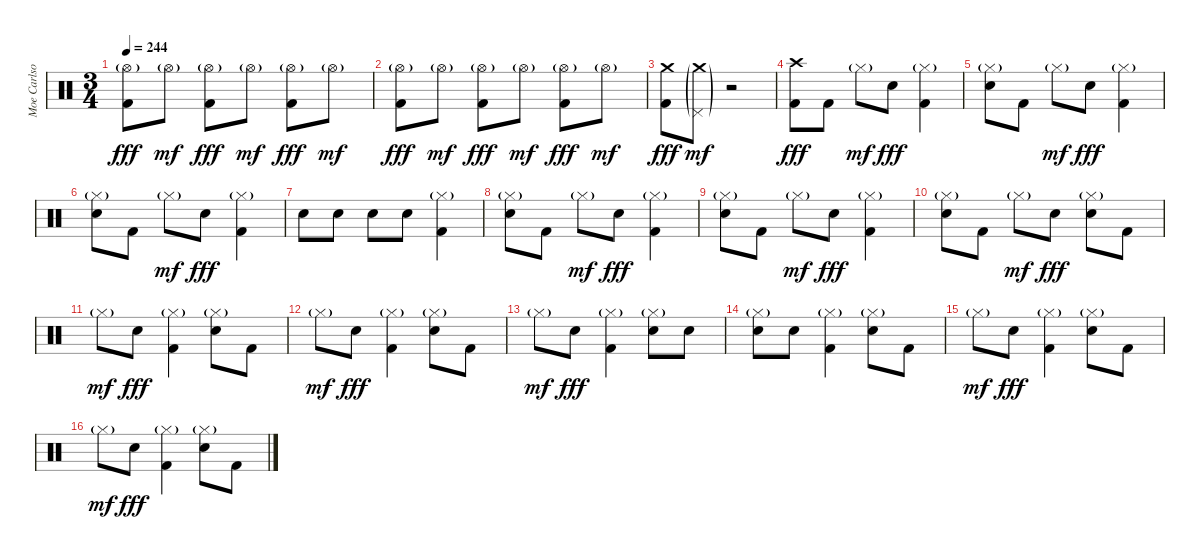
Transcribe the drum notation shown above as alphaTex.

\track ("Moe Carlson" "Moe Carlso") {instrument percussion}
\staff {score}
\articulation defaults
\ts (3 4)
\tempo 244
\clef neutral
\ks c
("Hi-Hat (open)"{g} "Kick (hit) 2").8{dy fff} "Hi-Hat (open)"{g}.8{dy mf} ("Hi-Hat (open)"{g} "Kick (hit) 2").8{dy fff} "Hi-Hat (open)"{g}.8{dy mf} ("Hi-Hat (open)"{g} "Kick (hit) 2").8{dy fff} "Hi-Hat (open)"{g}.8{dy mf} |
("Hi-Hat (open)"{g} "Kick (hit) 2").8{dy fff} "Hi-Hat (open)"{g}.8{dy mf} ("Hi-Hat (open)"{g} "Kick (hit) 2").8{dy fff} "Hi-Hat (open)"{g}.8{dy mf} ("Hi-Hat (open)"{g} "Kick (hit) 2").8{dy fff} "Hi-Hat (open)"{g}.8{dy mf} |
("Crash medium (hit)" "Kick (hit) 2").8{dy fff} ("Crash medium (hit)"{g} "Pedal Hi-Hat (hit)"{g}).8{dy mf} r.2 |
("Crash high (hit)" "Kick (hit) 2").8{dy fff} "Kick (hit) 2".8 "Hi-Hat (closed)"{g}.8{dy mf} "Electric Snare (hit)".8{dy fff} ("Hi-Hat (closed)"{g} "Kick (hit) 2").4 |
("Hi-Hat (closed)"{g} "Electric Snare (hit)").8 "Kick (hit) 2".8 "Hi-Hat (closed)"{g}.8{dy mf} "Electric Snare (hit)".8{dy fff} ("Hi-Hat (closed)"{g} "Kick (hit) 2").4 |
("Hi-Hat (closed)"{g} "Electric Snare (hit)").8 "Kick (hit) 2".8 "Hi-Hat (closed)"{g}.8{dy mf} "Electric Snare (hit)".8{dy fff} ("Hi-Hat (closed)"{g} "Kick (hit) 2").4 |
"Electric Snare (hit)".8 "Electric Snare (hit)".8 "Electric Snare (hit)".8 "Electric Snare (hit)".8 ("Hi-Hat (closed)"{g} "Kick (hit) 2").4 |
("Hi-Hat (closed)"{g} "Electric Snare (hit)").8 "Kick (hit) 2".8 "Hi-Hat (closed)"{g}.8{dy mf} "Electric Snare (hit)".8{dy fff} ("Hi-Hat (closed)"{g} "Kick (hit) 2").4 |
("Hi-Hat (closed)"{g} "Electric Snare (hit)").8 "Kick (hit) 2".8 "Hi-Hat (closed)"{g}.8{dy mf} "Electric Snare (hit)".8{dy fff} ("Hi-Hat (closed)"{g} "Kick (hit) 2").4 |
("Hi-Hat (closed)"{g} "Electric Snare (hit)").8 "Kick (hit) 2".8 "Hi-Hat (closed)"{g}.8{dy mf} "Electric Snare (hit)".8{dy fff} ("Hi-Hat (closed)"{g} "Electric Snare (hit)").8 "Kick (hit) 2".8 |
"Hi-Hat (closed)"{g}.8{dy mf} "Electric Snare (hit)".8{dy fff} ("Hi-Hat (closed)"{g} "Kick (hit) 2").4 ("Hi-Hat (closed)"{g} "Electric Snare (hit)").8 "Kick (hit) 2".8 |
"Hi-Hat (closed)"{g}.8{dy mf} "Electric Snare (hit)".8{dy fff} ("Hi-Hat (closed)"{g} "Kick (hit) 2").4 ("Hi-Hat (closed)"{g} "Electric Snare (hit)").8 "Kick (hit) 2".8 |
"Hi-Hat (closed)"{g}.8{dy mf} "Electric Snare (hit)".8{dy fff} ("Hi-Hat (closed)"{g} "Kick (hit) 2").4 ("Hi-Hat (closed)"{g} "Electric Snare (hit)").8 "Electric Snare (hit)".8 |
("Hi-Hat (closed)"{g} "Electric Snare (hit)").8 "Electric Snare (hit)".8 ("Hi-Hat (closed)"{g} "Kick (hit) 2").4 ("Hi-Hat (closed)"{g} "Electric Snare (hit)").8 "Kick (hit) 2".8 |
"Hi-Hat (closed)"{g}.8{dy mf} "Electric Snare (hit)".8{dy fff} ("Hi-Hat (closed)"{g} "Kick (hit) 2").4 ("Hi-Hat (closed)"{g} "Electric Snare (hit)").8 "Kick (hit) 2".8 |
"Hi-Hat (closed)"{g}.8{dy mf} "Electric Snare (hit)".8{dy fff} ("Hi-Hat (closed)"{g} "Kick (hit) 2").4 ("Hi-Hat (closed)"{g} "Electric Snare (hit)").8 "Kick (hit) 2".8
